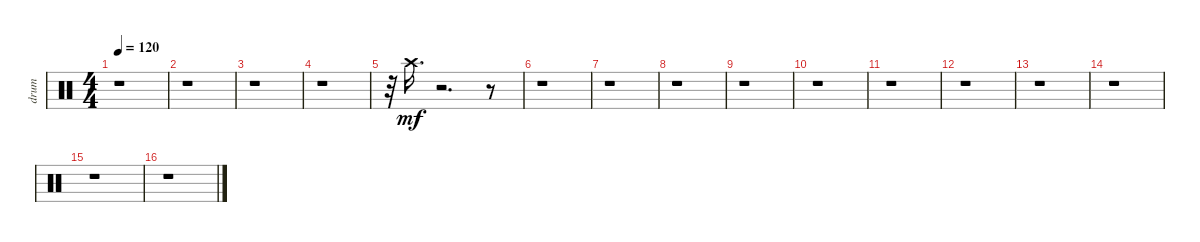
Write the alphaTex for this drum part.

\track ("drum" "drum") {instrument percussion}
\staff {score}
\articulation defaults
\ts (4 4)
\tempo 120
\clef neutral
\ks c
r.1{dy mf} |
r.1 |
r.1 |
r.1 |
r.32 "Crash high (hit)".16{d} r.2{d} r.8 |
r.1 |
r.1 |
r.1 |
r.1 |
r.1 |
r.1 |
r.1 |
r.1 |
r.1 |
r.1 |
r.1
